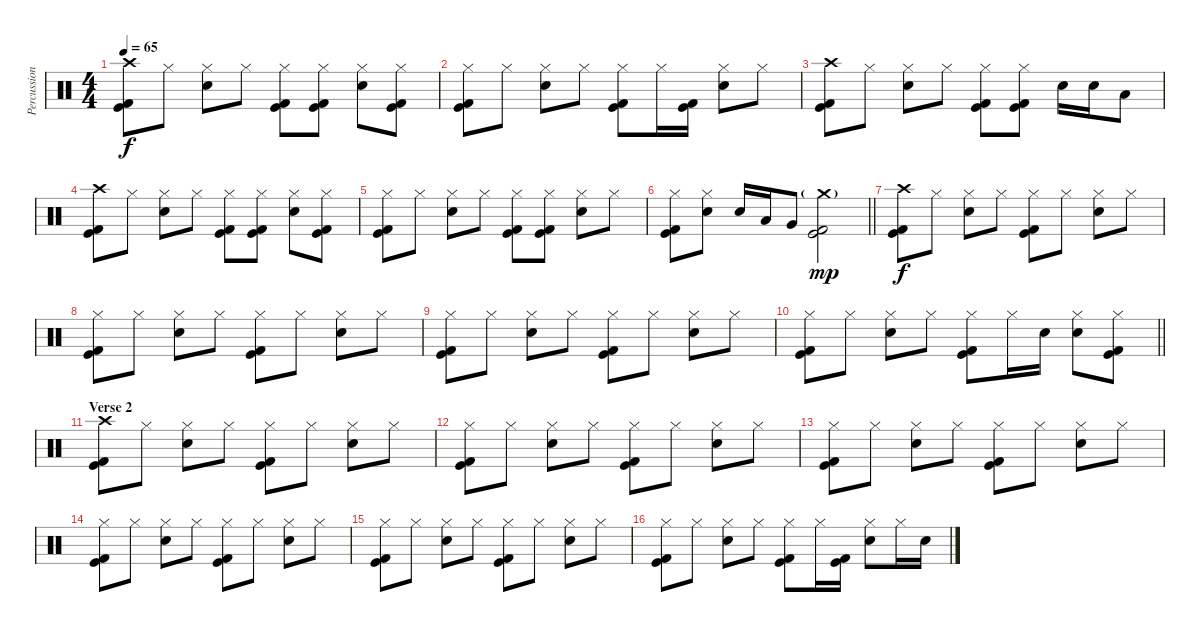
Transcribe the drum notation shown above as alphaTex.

\track ("Percussion" "Percussion") {instrument percussion}
\staff {score}
\articulation defaults
\ts (4 4)
\tempo 65
\clef neutral
\ks c
("Crash high (hit)" "Kick (hit)" "Kick (hit) 2").8{dy f} "Hi-Hat (closed)".8 ("Hi-Hat (closed)" "Electric Snare (hit)").8 "Hi-Hat (closed)".8 ("Hi-Hat (closed)" "Kick (hit)" "Kick (hit) 2").8 ("Hi-Hat (closed)" "Kick (hit)" "Kick (hit) 2").8 ("Hi-Hat (closed)" "Electric Snare (hit)").8 ("Hi-Hat (closed)" "Kick (hit)" "Kick (hit) 2").8 |
("Hi-Hat (closed)" "Kick (hit)" "Kick (hit) 2").8 "Hi-Hat (closed)".8 ("Hi-Hat (closed)" "Electric Snare (hit)").8 "Hi-Hat (closed)".8 ("Hi-Hat (closed)" "Kick (hit)" "Kick (hit) 2").8 "Hi-Hat (closed)".16 ("Kick (hit)" "Kick (hit) 2").16 ("Hi-Hat (closed)" "Electric Snare (hit)").8 "Hi-Hat (closed)".8 |
("Crash high (hit)" "Kick (hit)" "Kick (hit) 2").8 "Hi-Hat (closed)".8 ("Hi-Hat (closed)" "Electric Snare (hit)").8 "Hi-Hat (closed)".8 ("Hi-Hat (closed)" "Kick (hit)" "Kick (hit) 2").8 ("Hi-Hat (closed)" "Kick (hit)" "Kick (hit) 2").8 "Electric Snare (hit)".16 "Electric Snare (hit)".16 "Low Tom (hit)".8 |
("Crash high (hit)" "Kick (hit)" "Kick (hit) 2").8 "Hi-Hat (closed)".8 ("Hi-Hat (closed)" "Electric Snare (hit)").8 "Hi-Hat (closed)".8 ("Hi-Hat (closed)" "Kick (hit)" "Kick (hit) 2").8 ("Hi-Hat (closed)" "Kick (hit)" "Kick (hit) 2").8 ("Hi-Hat (closed)" "Electric Snare (hit)").8 ("Hi-Hat (closed)" "Kick (hit)" "Kick (hit) 2").8 |
("Hi-Hat (closed)" "Kick (hit)" "Kick (hit) 2").8 "Hi-Hat (closed)".8 ("Hi-Hat (closed)" "Electric Snare (hit)").8 "Hi-Hat (closed)".8 ("Hi-Hat (closed)" "Kick (hit)" "Kick (hit) 2").8 ("Hi-Hat (closed)" "Kick (hit)" "Kick (hit) 2").8 ("Hi-Hat (closed)" "Electric Snare (hit)").8 "Hi-Hat (closed)".8 |
\barLineRight lightlight
("Hi-Hat (closed)" "Kick (hit)" "Kick (hit) 2").8 ("Hi-Hat (closed)" "Electric Snare (hit)").8 "Electric Snare (hit)".16 "Low Tom (hit)".16 "Very Low Tom (hit)".8 ("Crash medium (hit)"{g} "Kick (hit)" "Kick (hit) 2").2{dy mp} |
\section ("" "")
("Crash high (hit)" "Kick (hit)" "Kick (hit) 2").8{dy f} "Hi-Hat (closed)".8 ("Hi-Hat (closed)" "Electric Snare (hit)").8 "Hi-Hat (closed)".8 ("Hi-Hat (closed)" "Kick (hit)" "Kick (hit) 2").8 "Hi-Hat (closed)".8 ("Hi-Hat (closed)" "Electric Snare (hit)").8 "Hi-Hat (closed)".8 |
("Hi-Hat (closed)" "Kick (hit)" "Kick (hit) 2").8 "Hi-Hat (closed)".8 ("Hi-Hat (closed)" "Electric Snare (hit)").8 "Hi-Hat (closed)".8 ("Hi-Hat (closed)" "Kick (hit)" "Kick (hit) 2").8 "Hi-Hat (closed)".8 ("Hi-Hat (closed)" "Electric Snare (hit)").8 "Hi-Hat (closed)".8 |
("Hi-Hat (closed)" "Kick (hit)" "Kick (hit) 2").8 "Hi-Hat (closed)".8 ("Hi-Hat (closed)" "Electric Snare (hit)").8 "Hi-Hat (closed)".8 ("Hi-Hat (closed)" "Kick (hit)" "Kick (hit) 2").8 "Hi-Hat (closed)".8 ("Hi-Hat (closed)" "Electric Snare (hit)").8 "Hi-Hat (closed)".8 |
\barLineRight lightlight
("Hi-Hat (closed)" "Kick (hit)" "Kick (hit) 2").8 "Hi-Hat (closed)".8 ("Hi-Hat (closed)" "Electric Snare (hit)").8 "Hi-Hat (closed)".8 ("Hi-Hat (closed)" "Kick (hit)" "Kick (hit) 2").8 "Hi-Hat (closed)".16 "Electric Snare (hit)".16 ("Hi-Hat (closed)" "Electric Snare (hit)").8 ("Hi-Hat (closed)" "Kick (hit)" "Kick (hit) 2").8 |
\section ("" "Verse 2")
("Crash high (hit)" "Kick (hit)" "Kick (hit) 2").8 "Hi-Hat (closed)".8 ("Hi-Hat (closed)" "Electric Snare (hit)").8 "Hi-Hat (closed)".8 ("Hi-Hat (closed)" "Kick (hit)" "Kick (hit) 2").8 "Hi-Hat (closed)".8 ("Hi-Hat (closed)" "Electric Snare (hit)").8 "Hi-Hat (closed)".8 |
("Hi-Hat (closed)" "Kick (hit)" "Kick (hit) 2").8 "Hi-Hat (closed)".8 ("Hi-Hat (closed)" "Electric Snare (hit)").8 "Hi-Hat (closed)".8 ("Hi-Hat (closed)" "Kick (hit)" "Kick (hit) 2").8 "Hi-Hat (closed)".8 ("Hi-Hat (closed)" "Electric Snare (hit)").8 "Hi-Hat (closed)".8 |
("Hi-Hat (closed)" "Kick (hit)" "Kick (hit) 2").8 "Hi-Hat (closed)".8 ("Hi-Hat (closed)" "Electric Snare (hit)").8 "Hi-Hat (closed)".8 ("Hi-Hat (closed)" "Kick (hit)" "Kick (hit) 2").8 "Hi-Hat (closed)".8 ("Hi-Hat (closed)" "Electric Snare (hit)").8 "Hi-Hat (closed)".8 |
("Hi-Hat (closed)" "Kick (hit)" "Kick (hit) 2").8 "Hi-Hat (closed)".8 ("Hi-Hat (closed)" "Electric Snare (hit)").8 "Hi-Hat (closed)".8 ("Hi-Hat (closed)" "Kick (hit)" "Kick (hit) 2").8 "Hi-Hat (closed)".8 ("Hi-Hat (closed)" "Electric Snare (hit)").8 "Hi-Hat (closed)".8 |
("Hi-Hat (closed)" "Kick (hit)" "Kick (hit) 2").8 "Hi-Hat (closed)".8 ("Hi-Hat (closed)" "Electric Snare (hit)").8 "Hi-Hat (closed)".8 ("Hi-Hat (closed)" "Kick (hit)" "Kick (hit) 2").8 "Hi-Hat (closed)".8 ("Hi-Hat (closed)" "Electric Snare (hit)").8 "Hi-Hat (closed)".8 |
("Hi-Hat (closed)" "Kick (hit)" "Kick (hit) 2").8 "Hi-Hat (closed)".8 ("Hi-Hat (closed)" "Electric Snare (hit)").8 "Hi-Hat (closed)".8 ("Hi-Hat (closed)" "Kick (hit)" "Kick (hit) 2").8 "Hi-Hat (closed)".16 ("Kick (hit)" "Kick (hit) 2").16 ("Hi-Hat (closed)" "Electric Snare (hit)").8 "Hi-Hat (closed)".16 "Electric Snare (hit)".16
